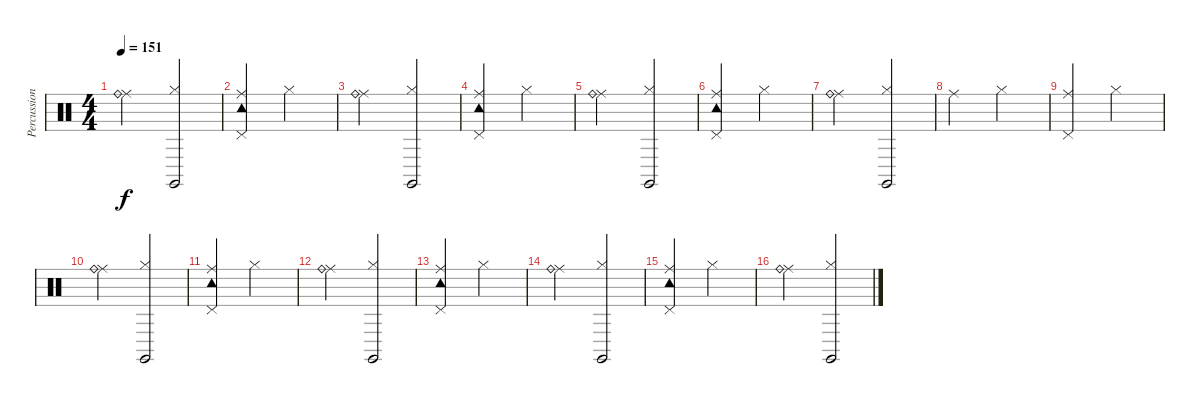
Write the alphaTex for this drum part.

\track ("Percussion" "Percussion") {instrument percussion}
\staff {score}
\articulation defaults
\ts (4 4)
\tempo 151
\clef neutral
\ks c
("Ride (middle)" "Ride (bell)").2{dy f} ("Hi-Hat (closed)" "Claves (hit)").2 |
("Ride (middle)" "Tambourine (hit)" "Pedal Hi-Hat (hit)").2 "Hi-Hat (closed)".2 |
("Ride (middle)" "Ride (bell)").2 ("Hi-Hat (closed)" "Claves (hit)").2 |
("Ride (middle)" "Tambourine (hit)" "Pedal Hi-Hat (hit)").2 "Hi-Hat (closed)".2 |
("Ride (middle)" "Ride (bell)").2 ("Hi-Hat (closed)" "Claves (hit)").2 |
("Ride (middle)" "Tambourine (hit)" "Pedal Hi-Hat (hit)").2 "Hi-Hat (closed)".2 |
("Ride (middle)" "Ride (bell)").2 ("Hi-Hat (closed)" "Claves (hit)").2 |
"Ride (middle)".2 "Hi-Hat (closed)".2 |
("Ride (middle)" "Pedal Hi-Hat (hit)").2 "Hi-Hat (closed)".2 |
("Ride (middle)" "Ride (bell)").2 ("Hi-Hat (closed)" "Claves (hit)").2 |
("Ride (middle)" "Tambourine (hit)" "Pedal Hi-Hat (hit)").2 "Hi-Hat (closed)".2 |
("Ride (middle)" "Ride (bell)").2 ("Hi-Hat (closed)" "Claves (hit)").2 |
("Ride (middle)" "Tambourine (hit)" "Pedal Hi-Hat (hit)").2 "Hi-Hat (closed)".2 |
("Ride (middle)" "Ride (bell)").2 ("Hi-Hat (closed)" "Claves (hit)").2 |
("Ride (middle)" "Tambourine (hit)" "Pedal Hi-Hat (hit)").2 "Hi-Hat (closed)".2 |
("Ride (middle)" "Ride (bell)").2 ("Hi-Hat (closed)" "Claves (hit)").2
